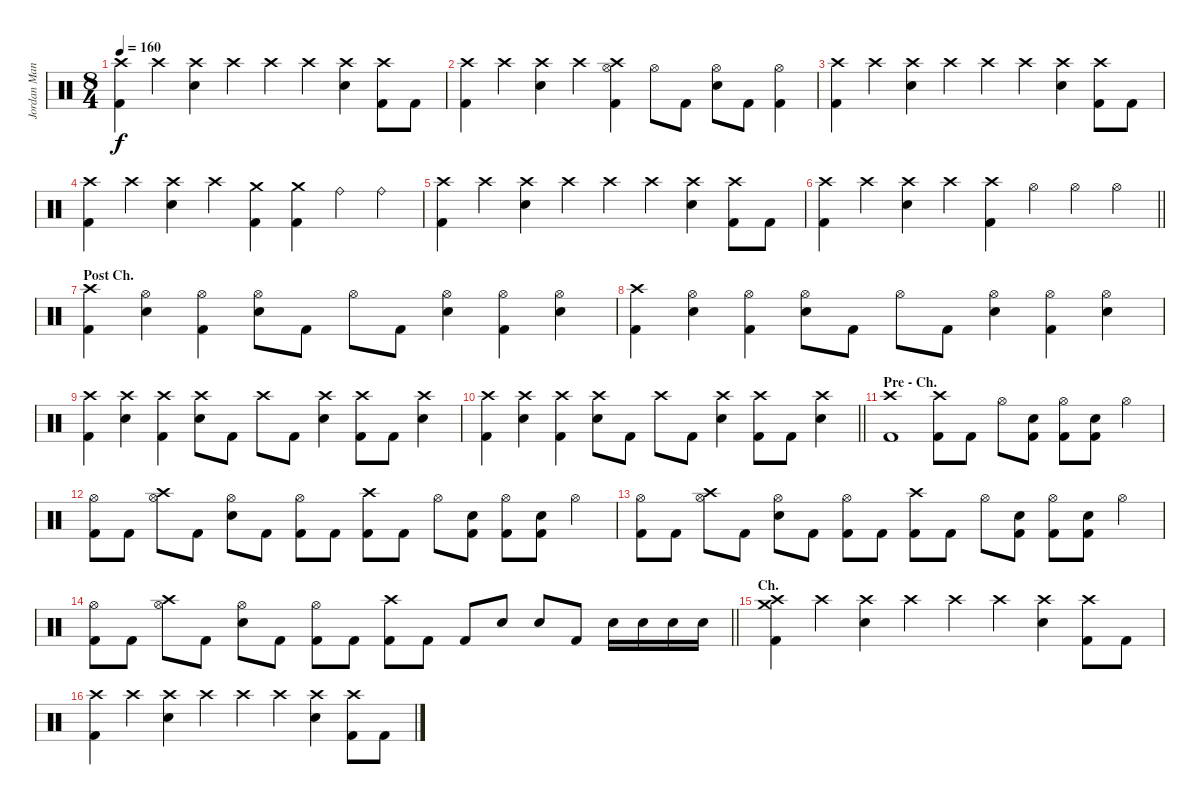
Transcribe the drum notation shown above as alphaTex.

\track ("Jordan Mancino" "Jordan Man") {instrument percussion}
\staff {score}
\articulation defaults
\ts (8 4)
\tempo 160
\clef neutral
\ks c
("Crash high (hit)" "Kick (hit) 2").4{dy f} "Crash high (hit)".4 ("Crash high (hit)" "Electric Snare (hit)").4 "Crash high (hit)".4 "Crash high (hit)".4 "Crash high (hit)".4 ("Crash high (hit)" "Electric Snare (hit)").4 ("Crash high (hit)" "Kick (hit) 2").8 "Kick (hit) 2".8 |
("Crash high (hit)" "Kick (hit) 2").4 "Crash high (hit)".4 ("Crash high (hit)" "Electric Snare (hit)").4 "Crash high (hit)".4 ("Crash high (hit)" "Hi-Hat (open)" "Kick (hit) 2").4 "Hi-Hat (open)".8 "Kick (hit) 2".8 ("Hi-Hat (open)" "Electric Snare (hit)").8 "Kick (hit) 2".8 ("Hi-Hat (open)" "Kick (hit) 2").4 |
("Crash high (hit)" "Kick (hit) 2").4 "Crash high (hit)".4 ("Crash high (hit)" "Electric Snare (hit)").4 "Crash high (hit)".4 "Crash high (hit)".4 "Crash high (hit)".4 ("Crash high (hit)" "Electric Snare (hit)").4 ("Crash high (hit)" "Kick (hit) 2").8 "Kick (hit) 2".8 |
("Crash high (hit)" "Kick (hit) 2").4 "Crash high (hit)".4 ("Crash high (hit)" "Electric Snare (hit)").4 "Crash high (hit)".4 ("Crash medium (hit)" "Kick (hit) 2").4 ("Crash medium (hit)" "Kick (hit) 2").4 "Ride (bell)".4 "Ride (bell)".4 |
("Crash high (hit)" "Kick (hit) 2").4 "Crash high (hit)".4 ("Crash high (hit)" "Electric Snare (hit)").4 "Crash high (hit)".4 "Crash high (hit)".4 "Crash high (hit)".4 ("Crash high (hit)" "Electric Snare (hit)").4 ("Crash high (hit)" "Kick (hit) 2").8 "Kick (hit) 2".8 |
\barLineRight lightlight
("Crash high (hit)" "Kick (hit) 2").4 "Crash high (hit)".4 ("Crash high (hit)" "Electric Snare (hit)").4 "Crash high (hit)".4 ("Crash high (hit)" "Kick (hit) 2").4 "Hi-Hat (open)".4 "Hi-Hat (open)".4 "Hi-Hat (open)".4 |
\section ("" "Post Ch.")
("Crash high (hit)" "Kick (hit) 2").4 ("Hi-Hat (open)" "Electric Snare (hit)").4 ("Hi-Hat (open)" "Kick (hit) 2").4 ("Hi-Hat (open)" "Electric Snare (hit)").8 "Kick (hit) 2".8 "Hi-Hat (open)".8 "Kick (hit) 2".8 ("Hi-Hat (open)" "Electric Snare (hit)").4 ("Hi-Hat (open)" "Kick (hit) 2").4 ("Hi-Hat (open)" "Electric Snare (hit)").4 |
("Crash high (hit)" "Kick (hit) 2").4 ("Hi-Hat (open)" "Electric Snare (hit)").4 ("Hi-Hat (open)" "Kick (hit) 2").4 ("Hi-Hat (open)" "Electric Snare (hit)").8 "Kick (hit) 2".8 "Hi-Hat (open)".8 "Kick (hit) 2".8 ("Hi-Hat (open)" "Electric Snare (hit)").4 ("Hi-Hat (open)" "Kick (hit) 2").4 ("Hi-Hat (open)" "Electric Snare (hit)").4 |
("Crash high (hit)" "Kick (hit) 2").4 ("Crash high (hit)" "Electric Snare (hit)").4 ("Crash high (hit)" "Kick (hit) 2").4 ("Crash high (hit)" "Electric Snare (hit)").8 "Kick (hit) 2".8 "Crash high (hit)".8 "Kick (hit) 2".8 ("Crash high (hit)" "Electric Snare (hit)").4 ("Crash high (hit)" "Kick (hit) 2").8 "Kick (hit) 2".8 ("Crash high (hit)" "Electric Snare (hit)").4 |
\barLineRight lightlight
("Crash high (hit)" "Kick (hit) 2").4 ("Crash high (hit)" "Electric Snare (hit)").4 ("Crash high (hit)" "Kick (hit) 2").4 ("Crash high (hit)" "Electric Snare (hit)").8 "Kick (hit) 2".8 "Crash high (hit)".8 "Kick (hit) 2".8 ("Crash high (hit)" "Electric Snare (hit)").4 ("Crash high (hit)" "Kick (hit) 2").8 "Kick (hit) 2".8 ("Crash high (hit)" "Electric Snare (hit)").4 |
\section ("" "Pre - Ch.")
("Crash high (hit)" "Kick (hit) 2").1 ("Crash high (hit)" "Kick (hit) 2").8 "Kick (hit) 2".8 "Hi-Hat (open)".8 ("Electric Snare (hit)" "Kick (hit) 2").8 ("Hi-Hat (open)" "Kick (hit) 2").8 ("Electric Snare (hit)" "Kick (hit) 2").8 "Hi-Hat (open)".4 |
("Hi-Hat (open)" "Kick (hit) 2").8 "Kick (hit) 2".8 ("Crash high (hit)" "Hi-Hat (open)").8 "Kick (hit) 2".8 ("Hi-Hat (open)" "Electric Snare (hit)").8 "Kick (hit) 2".8 ("Hi-Hat (open)" "Kick (hit) 2").8 "Kick (hit) 2".8 ("Crash high (hit)" "Kick (hit) 2").8 "Kick (hit) 2".8 "Hi-Hat (open)".8 ("Electric Snare (hit)" "Kick (hit) 2").8 ("Hi-Hat (open)" "Kick (hit) 2").8 ("Electric Snare (hit)" "Kick (hit) 2").8 "Hi-Hat (open)".4 |
("Hi-Hat (open)" "Kick (hit) 2").8 "Kick (hit) 2".8 ("Crash high (hit)" "Hi-Hat (open)").8 "Kick (hit) 2".8 ("Hi-Hat (open)" "Electric Snare (hit)").8 "Kick (hit) 2".8 ("Hi-Hat (open)" "Kick (hit) 2").8 "Kick (hit) 2".8 ("Crash high (hit)" "Kick (hit) 2").8 "Kick (hit) 2".8 "Hi-Hat (open)".8 ("Electric Snare (hit)" "Kick (hit) 2").8 ("Hi-Hat (open)" "Kick (hit) 2").8 ("Electric Snare (hit)" "Kick (hit) 2").8 "Hi-Hat (open)".4 |
\barLineRight lightlight
("Hi-Hat (open)" "Kick (hit) 2").8 "Kick (hit) 2".8 ("Crash high (hit)" "Hi-Hat (open)").8 "Kick (hit) 2".8 ("Hi-Hat (open)" "Electric Snare (hit)").8 "Kick (hit) 2".8 ("Hi-Hat (open)" "Kick (hit) 2").8 "Kick (hit) 2".8 ("Crash high (hit)" "Kick (hit) 2").8 "Kick (hit) 2".8 "Kick (hit) 2".8 "Electric Snare (hit)".8 "Electric Snare (hit)".8 "Kick (hit) 2".8 "Electric Snare (hit)".16 "Electric Snare (hit)".16 "Electric Snare (hit)".16 "Electric Snare (hit)".16 |
\section ("" "Ch.")
("Crash high (hit)" "Crash medium (hit)" "Kick (hit) 2").4 "Crash high (hit)".4 ("Crash high (hit)" "Electric Snare (hit)").4 "Crash high (hit)".4 "Crash high (hit)".4 "Crash high (hit)".4 ("Crash high (hit)" "Electric Snare (hit)").4 ("Crash high (hit)" "Kick (hit) 2").8 "Kick (hit) 2".8 |
("Crash high (hit)" "Kick (hit) 2").4 "Crash high (hit)".4 ("Crash high (hit)" "Electric Snare (hit)").4 "Crash high (hit)".4 "Crash high (hit)".4 "Crash high (hit)".4 ("Crash high (hit)" "Electric Snare (hit)").4 ("Crash high (hit)" "Kick (hit) 2").8 "Kick (hit) 2".8
